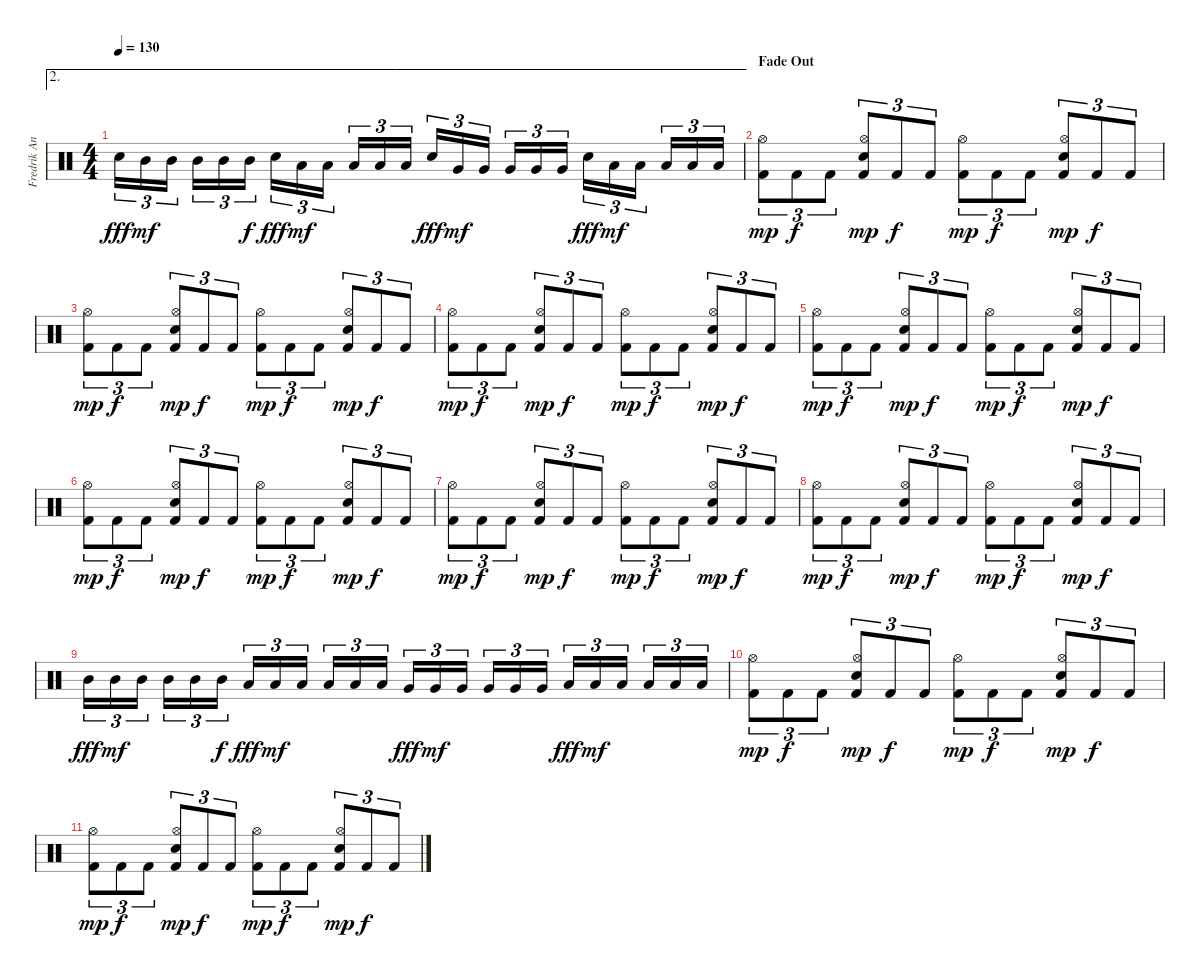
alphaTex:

\track ("Fredrik Andersson" "Fredrik An") {instrument percussion}
\staff {score}
\articulation defaults
\ae 2
\ts (4 4)
\tempo 130
\clef neutral
\ks c "Snare (hit) 2".16{tu (3 2) dy fff} "Mid Tom (hit)".16{tu (3 2) dy mf} "Mid Tom (hit)".16{tu (3 2)} "Mid Tom (hit)".16{tu (3 2)} "Mid Tom (hit)".16{tu (3 2)} "Mid Tom (hit)".16{tu (3 2) dy f} "Snare (hit) 2".16{tu (3 2) dy fff} "Low Tom (hit)".16{tu (3 2) dy mf} "Low Tom (hit)".16{tu (3 2)} "Low Tom (hit)".16{tu (3 2)} "Low Tom (hit)".16{tu (3 2)} "Low Tom (hit)".16{tu (3 2)} "Snare (hit) 2".16{tu (3 2) dy fff} "Very Low Tom (hit)".16{tu (3 2) dy mf} "Very Low Tom (hit)".16{tu (3 2)} "Very Low Tom (hit)".16{tu (3 2)} "Very Low Tom (hit)".16{tu (3 2)} "Very Low Tom (hit)".16{tu (3 2)} "Snare (hit) 2".16{tu (3 2) dy fff} "Low Floor Tom (hit)".16{tu (3 2) dy mf} "Low Floor Tom (hit)".16{tu (3 2)} "Low Floor Tom (hit)".16{tu (3 2)} "Low Floor Tom (hit)".16{tu (3 2)} "Low Floor Tom (hit)".16{tu (3 2)}
|
\section ("" "Fade Out")
("Hi-Hat (open)" "Kick (hit) 2").8{tu (3 2) dy mp} "Kick (hit) 2".8{tu (3 2) dy f} "Kick (hit) 2".8{tu (3 2)} ("Hi-Hat (open)" "Snare (hit) 2" "Kick (hit) 2").8{tu (3 2) dy mp} "Kick (hit) 2".8{tu (3 2) dy f} "Kick (hit) 2".8{tu (3 2)} ("Hi-Hat (open)" "Kick (hit) 2").8{tu (3 2) dy mp} "Kick (hit) 2".8{tu (3 2) dy f} "Kick (hit) 2".8{tu (3 2)} ("Hi-Hat (open)" "Snare (hit) 2" "Kick (hit) 2").8{tu (3 2) dy mp} "Kick (hit) 2".8{tu (3 2) dy f} "Kick (hit) 2".8{tu (3 2)} |
("Hi-Hat (open)" "Kick (hit) 2").8{tu (3 2) dy mp} "Kick (hit) 2".8{tu (3 2) dy f} "Kick (hit) 2".8{tu (3 2)} ("Hi-Hat (open)" "Snare (hit) 2" "Kick (hit) 2").8{tu (3 2) dy mp} "Kick (hit) 2".8{tu (3 2) dy f} "Kick (hit) 2".8{tu (3 2)} ("Hi-Hat (open)" "Kick (hit) 2").8{tu (3 2) dy mp} "Kick (hit) 2".8{tu (3 2) dy f} "Kick (hit) 2".8{tu (3 2)} ("Hi-Hat (open)" "Snare (hit) 2" "Kick (hit) 2").8{tu (3 2) dy mp} "Kick (hit) 2".8{tu (3 2) dy f} "Kick (hit) 2".8{tu (3 2)} |
("Hi-Hat (open)" "Kick (hit) 2").8{tu (3 2) dy mp} "Kick (hit) 2".8{tu (3 2) dy f} "Kick (hit) 2".8{tu (3 2)} ("Hi-Hat (open)" "Snare (hit) 2" "Kick (hit) 2").8{tu (3 2) dy mp} "Kick (hit) 2".8{tu (3 2) dy f} "Kick (hit) 2".8{tu (3 2)} ("Hi-Hat (open)" "Kick (hit) 2").8{tu (3 2) dy mp} "Kick (hit) 2".8{tu (3 2) dy f} "Kick (hit) 2".8{tu (3 2)} ("Hi-Hat (open)" "Snare (hit) 2" "Kick (hit) 2").8{tu (3 2) dy mp} "Kick (hit) 2".8{tu (3 2) dy f} "Kick (hit) 2".8{tu (3 2)} |
("Hi-Hat (open)" "Kick (hit) 2").8{tu (3 2) dy mp} "Kick (hit) 2".8{tu (3 2) dy f} "Kick (hit) 2".8{tu (3 2)} ("Hi-Hat (open)" "Snare (hit) 2" "Kick (hit) 2").8{tu (3 2) dy mp} "Kick (hit) 2".8{tu (3 2) dy f} "Kick (hit) 2".8{tu (3 2)} ("Hi-Hat (open)" "Kick (hit) 2").8{tu (3 2) dy mp} "Kick (hit) 2".8{tu (3 2) dy f} "Kick (hit) 2".8{tu (3 2)} ("Hi-Hat (open)" "Snare (hit) 2" "Kick (hit) 2").8{tu (3 2) dy mp} "Kick (hit) 2".8{tu (3 2) dy f} "Kick (hit) 2".8{tu (3 2)} |
("Hi-Hat (open)" "Kick (hit) 2").8{tu (3 2) dy mp} "Kick (hit) 2".8{tu (3 2) dy f} "Kick (hit) 2".8{tu (3 2)} ("Hi-Hat (open)" "Snare (hit) 2" "Kick (hit) 2").8{tu (3 2) dy mp} "Kick (hit) 2".8{tu (3 2) dy f} "Kick (hit) 2".8{tu (3 2)} ("Hi-Hat (open)" "Kick (hit) 2").8{tu (3 2) dy mp} "Kick (hit) 2".8{tu (3 2) dy f} "Kick (hit) 2".8{tu (3 2)} ("Hi-Hat (open)" "Snare (hit) 2" "Kick (hit) 2").8{tu (3 2) dy mp} "Kick (hit) 2".8{tu (3 2) dy f} "Kick (hit) 2".8{tu (3 2)} |
("Hi-Hat (open)" "Kick (hit) 2").8{tu (3 2) dy mp} "Kick (hit) 2".8{tu (3 2) dy f} "Kick (hit) 2".8{tu (3 2)} ("Hi-Hat (open)" "Snare (hit) 2" "Kick (hit) 2").8{tu (3 2) dy mp} "Kick (hit) 2".8{tu (3 2) dy f} "Kick (hit) 2".8{tu (3 2)} ("Hi-Hat (open)" "Kick (hit) 2").8{tu (3 2) dy mp} "Kick (hit) 2".8{tu (3 2) dy f} "Kick (hit) 2".8{tu (3 2)} ("Hi-Hat (open)" "Snare (hit) 2" "Kick (hit) 2").8{tu (3 2) dy mp} "Kick (hit) 2".8{tu (3 2) dy f} "Kick (hit) 2".8{tu (3 2)} |
("Hi-Hat (open)" "Kick (hit) 2").8{tu (3 2) dy mp} "Kick (hit) 2".8{tu (3 2) dy f} "Kick (hit) 2".8{tu (3 2)} ("Hi-Hat (open)" "Snare (hit) 2" "Kick (hit) 2").8{tu (3 2) dy mp} "Kick (hit) 2".8{tu (3 2) dy f} "Kick (hit) 2".8{tu (3 2)} ("Hi-Hat (open)" "Kick (hit) 2").8{tu (3 2) dy mp} "Kick (hit) 2".8{tu (3 2) dy f} "Kick (hit) 2".8{tu (3 2)} ("Hi-Hat (open)" "Snare (hit) 2" "Kick (hit) 2").8{tu (3 2) dy mp} "Kick (hit) 2".8{tu (3 2) dy f} "Kick (hit) 2".8{tu (3 2)} |
"Mid Tom (hit)".16{tu (3 2) dy fff} "Mid Tom (hit)".16{tu (3 2) dy mf} "Mid Tom (hit)".16{tu (3 2)} "Mid Tom (hit)".16{tu (3 2)} "Mid Tom (hit)".16{tu (3 2)} "Mid Tom (hit)".16{tu (3 2) dy f} "Low Tom (hit)".16{tu (3 2) dy fff} "Low Tom (hit)".16{tu (3 2) dy mf} "Low Tom (hit)".16{tu (3 2)} "Low Tom (hit)".16{tu (3 2)} "Low Tom (hit)".16{tu (3 2)} "Low Tom (hit)".16{tu (3 2)} "Very Low Tom (hit)".16{tu (3 2) dy fff} "Very Low Tom (hit)".16{tu (3 2) dy mf} "Very Low Tom (hit)".16{tu (3 2)} "Very Low Tom (hit)".16{tu (3 2)} "Very Low Tom (hit)".16{tu (3 2)} "Very Low Tom (hit)".16{tu (3 2)} "Low Floor Tom (hit)".16{tu (3 2) dy fff} "Low Floor Tom (hit)".16{tu (3 2) dy mf} "Low Floor Tom (hit)".16{tu (3 2)} "Low Floor Tom (hit)".16{tu (3 2)} "Low Floor Tom (hit)".16{tu (3 2)} "Low Floor Tom (hit)".16{tu (3 2)} |
("Hi-Hat (open)" "Kick (hit) 2").8{tu (3 2) dy mp} "Kick (hit) 2".8{tu (3 2) dy f} "Kick (hit) 2".8{tu (3 2)} ("Hi-Hat (open)" "Snare (hit) 2" "Kick (hit) 2").8{tu (3 2) dy mp} "Kick (hit) 2".8{tu (3 2) dy f} "Kick (hit) 2".8{tu (3 2)} ("Hi-Hat (open)" "Kick (hit) 2").8{tu (3 2) dy mp} "Kick (hit) 2".8{tu (3 2) dy f} "Kick (hit) 2".8{tu (3 2)} ("Hi-Hat (open)" "Snare (hit) 2" "Kick (hit) 2").8{tu (3 2) dy mp} "Kick (hit) 2".8{tu (3 2) dy f} "Kick (hit) 2".8{tu (3 2)} |
("Hi-Hat (open)" "Kick (hit) 2").8{tu (3 2) dy mp} "Kick (hit) 2".8{tu (3 2) dy f} "Kick (hit) 2".8{tu (3 2)} ("Hi-Hat (open)" "Snare (hit) 2" "Kick (hit) 2").8{tu (3 2) dy mp} "Kick (hit) 2".8{tu (3 2) dy f} "Kick (hit) 2".8{tu (3 2)} ("Hi-Hat (open)" "Kick (hit) 2").8{tu (3 2) dy mp} "Kick (hit) 2".8{tu (3 2) dy f} "Kick (hit) 2".8{tu (3 2)} ("Hi-Hat (open)" "Snare (hit) 2" "Kick (hit) 2").8{tu (3 2) dy mp} "Kick (hit) 2".8{tu (3 2) dy f} "Kick (hit) 2".8{tu (3 2)}
